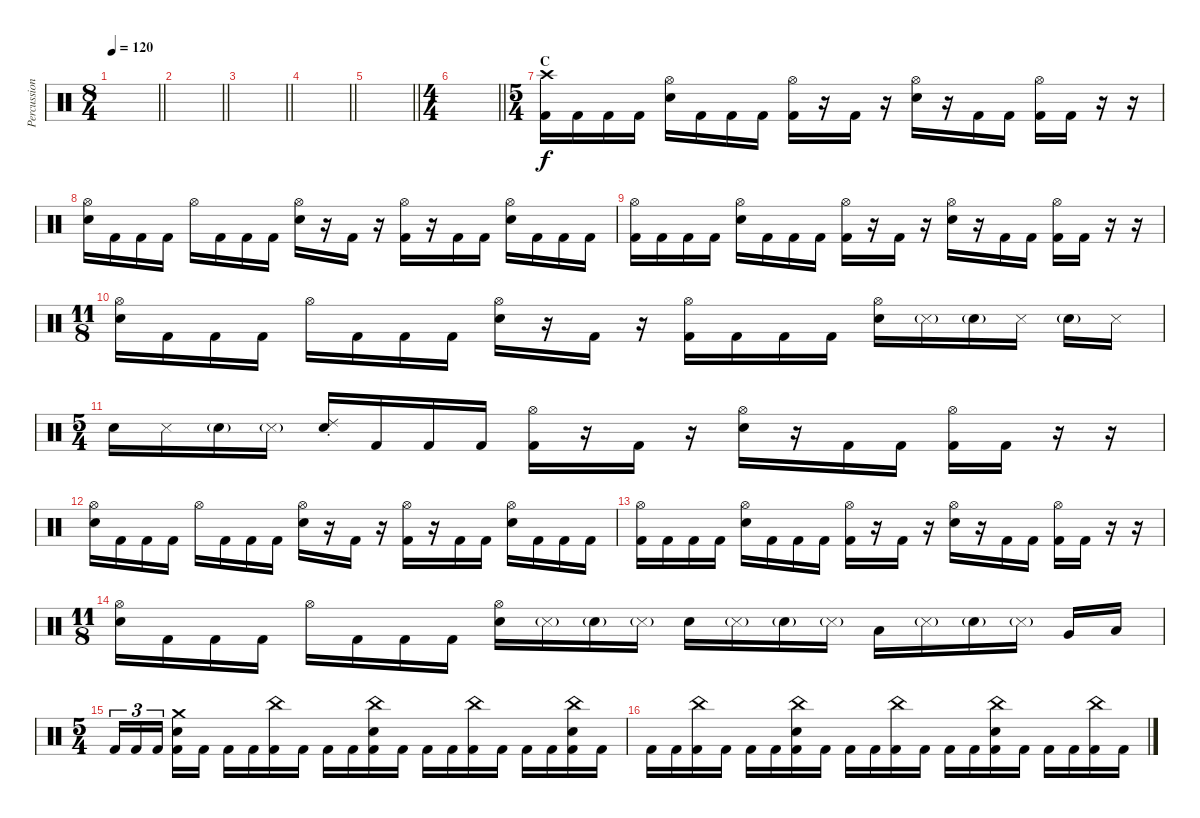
\track ("Percussion" "Percussion") {instrument percussion}
\staff {score}
\articulation defaults
\ts (8 4)
\tempo 120
\clef neutral
\barLineRight lightlight
\ks c
|
\barLineRight lightlight
|
\barLineRight lightlight
|
\barLineRight lightlight
|
\barLineRight lightlight
|
\ts (4 4)
\barLineRight lightlight
|
\ts (5 4)
\section ("" "C")
("Crash high (hit)" "Kick (hit) 2").16 "Kick (hit) 2".16 "Kick (hit) 2".16 "Kick (hit) 2".16 ("Hi-Hat (open)" "Snare (hit) 2").16 "Kick (hit) 2".16 "Kick (hit) 2".16 "Kick (hit) 2".16 ("Hi-Hat (open)" "Kick (hit) 2").16 r.16 "Kick (hit) 2".16 r.16 ("Hi-Hat (open)" "Snare (hit) 2").16 r.16 "Kick (hit) 2".16 "Kick (hit) 2".16 ("Hi-Hat (open)" "Kick (hit) 2").16 "Kick (hit) 2".16 r.16 r.16 |
("Hi-Hat (open)" "Snare (hit) 2").16 "Kick (hit) 2".16 "Kick (hit) 2".16 "Kick (hit) 2".16 "Hi-Hat (open)".16 "Kick (hit) 2".16 "Kick (hit) 2".16 "Kick (hit) 2".16 ("Hi-Hat (open)" "Snare (hit) 2").16 r.16 "Kick (hit) 2".16 r.16 ("Hi-Hat (open)" "Kick (hit) 2").16 r.16 "Kick (hit) 2".16 "Kick (hit) 2".16 ("Hi-Hat (open)" "Snare (hit) 2").16 "Kick (hit) 2".16 "Kick (hit) 2".16 "Kick (hit) 2".16 |
("Hi-Hat (open)" "Kick (hit) 2").16 "Kick (hit) 2".16 "Kick (hit) 2".16 "Kick (hit) 2".16 ("Hi-Hat (open)" "Snare (hit) 2").16 "Kick (hit) 2".16 "Kick (hit) 2".16 "Kick (hit) 2".16 ("Hi-Hat (open)" "Kick (hit) 2").16 r.16 "Kick (hit) 2".16 r.16 ("Hi-Hat (open)" "Snare (hit) 2").16 r.16 "Kick (hit) 2".16 "Kick (hit) 2".16 ("Hi-Hat (open)" "Kick (hit) 2").16 "Kick (hit) 2".16 r.16 r.16 |
\ts (11 8)
("Hi-Hat (open)" "Snare (hit) 2").16 "Kick (hit) 2".16 "Kick (hit) 2".16 "Kick (hit) 2".16 "Hi-Hat (open)".16 "Kick (hit) 2".16 "Kick (hit) 2".16 "Kick (hit) 2".16 ("Hi-Hat (open)" "Snare (hit) 2").16 r.16 "Kick (hit) 2".16 r.16 ("Hi-Hat (open)" "Kick (hit) 2").16 "Kick (hit) 2".16 "Kick (hit) 2".16 "Kick (hit) 2".16 ("Hi-Hat (open)" "Snare (hit) 2").16 "Metronome (hit)"{g}.16 "Snare (hit) 2"{g}.16 "Metronome (hit)".16 "Snare (hit) 2"{g}.16 "Metronome (hit)".16 |
\ts (5 4)
"Snare (hit) 2".16 "Metronome (hit)".16 "Snare (hit) 2"{g}.16 "Metronome (hit)"{g}.16 ("Ride (choke) 2" "Snare (hit) 2").16 "Kick (hit) 2".16 "Kick (hit) 2".16 "Kick (hit) 2".16 ("Hi-Hat (open)" "Kick (hit) 2").16 r.16 "Kick (hit) 2".16 r.16 ("Hi-Hat (open)" "Snare (hit) 2").16 r.16 "Kick (hit) 2".16 "Kick (hit) 2".16 ("Hi-Hat (open)" "Kick (hit) 2").16 "Kick (hit) 2".16 r.16 r.16 |
("Hi-Hat (open)" "Snare (hit) 2").16 "Kick (hit) 2".16 "Kick (hit) 2".16 "Kick (hit) 2".16 "Hi-Hat (open)".16 "Kick (hit) 2".16 "Kick (hit) 2".16 "Kick (hit) 2".16 ("Hi-Hat (open)" "Snare (hit) 2").16 r.16 "Kick (hit) 2".16 r.16 ("Hi-Hat (open)" "Kick (hit) 2").16 r.16 "Kick (hit) 2".16 "Kick (hit) 2".16 ("Hi-Hat (open)" "Snare (hit) 2").16 "Kick (hit) 2".16 "Kick (hit) 2".16 "Kick (hit) 2".16 |
("Hi-Hat (open)" "Kick (hit) 2").16 "Kick (hit) 2".16 "Kick (hit) 2".16 "Kick (hit) 2".16 ("Hi-Hat (open)" "Snare (hit) 2").16 "Kick (hit) 2".16 "Kick (hit) 2".16 "Kick (hit) 2".16 ("Hi-Hat (open)" "Kick (hit) 2").16 r.16 "Kick (hit) 2".16 r.16 ("Hi-Hat (open)" "Snare (hit) 2").16 r.16 "Kick (hit) 2".16 "Kick (hit) 2".16 ("Hi-Hat (open)" "Kick (hit) 2").16 "Kick (hit) 2".16 r.16 r.16 |
\ts (11 8)
("Hi-Hat (open)" "Snare (hit) 2").16 "Kick (hit) 2".16 "Kick (hit) 2".16 "Kick (hit) 2".16 "Hi-Hat (open)".16 "Kick (hit) 2".16 "Kick (hit) 2".16 "Kick (hit) 2".16 ("Hi-Hat (open)" "Snare (hit) 2").16 "Metronome (hit)"{g}.16 "Snare (hit) 2"{g}.16 "Metronome (hit)"{g}.16 "Snare (hit) 2".16 "Metronome (hit)"{g}.16 "Snare (hit) 2"{g}.16 "Metronome (hit)"{g}.16 "Low Tom (hit)".16 "Metronome (hit)"{g}.16 "Snare (hit) 2"{g}.16 "Metronome (hit)"{g}.16 "Very Low Tom (hit)".16 "Low Floor Tom (hit)".16 |
\ts (5 4)
"Kick (hit) 2".16{tu (3 2)} "Kick (hit) 2".16{tu (3 2)} "Kick (hit) 2".16{tu (3 2) beam splitsecondary} ("Crash medium (hit)" "Snare (hit) 2" "Kick (hit) 2").16 "Kick (hit) 2".16 "Kick (hit) 2".16 "Kick (hit) 2".16 ("China (hit)" "Kick (hit) 2").16 "Kick (hit) 2".16 "Kick (hit) 2".16 "Kick (hit) 2".16 ("China (hit)" "Snare (hit) 2" "Kick (hit) 2").16 "Kick (hit) 2".16 "Kick (hit) 2".16 "Kick (hit) 2".16 ("China (hit)" "Kick (hit) 2").16 "Kick (hit) 2".16 "Kick (hit) 2".16 "Kick (hit) 2".16 ("China (hit)" "Snare (hit) 2" "Kick (hit) 2").16 "Kick (hit) 2".16 |
"Kick (hit) 2".16 "Kick (hit) 2".16 ("China (hit)" "Kick (hit) 2").16 "Kick (hit) 2".16 "Kick (hit) 2".16 "Kick (hit) 2".16 ("China (hit)" "Snare (hit) 2" "Kick (hit) 2").16 "Kick (hit) 2".16 "Kick (hit) 2".16 "Kick (hit) 2".16 ("China (hit)" "Kick (hit) 2").16 "Kick (hit) 2".16 "Kick (hit) 2".16 "Kick (hit) 2".16 ("China (hit)" "Snare (hit) 2" "Kick (hit) 2").16 "Kick (hit) 2".16 "Kick (hit) 2".16 "Kick (hit) 2".16 ("China (hit)" "Kick (hit) 2").16 "Kick (hit) 2".16
